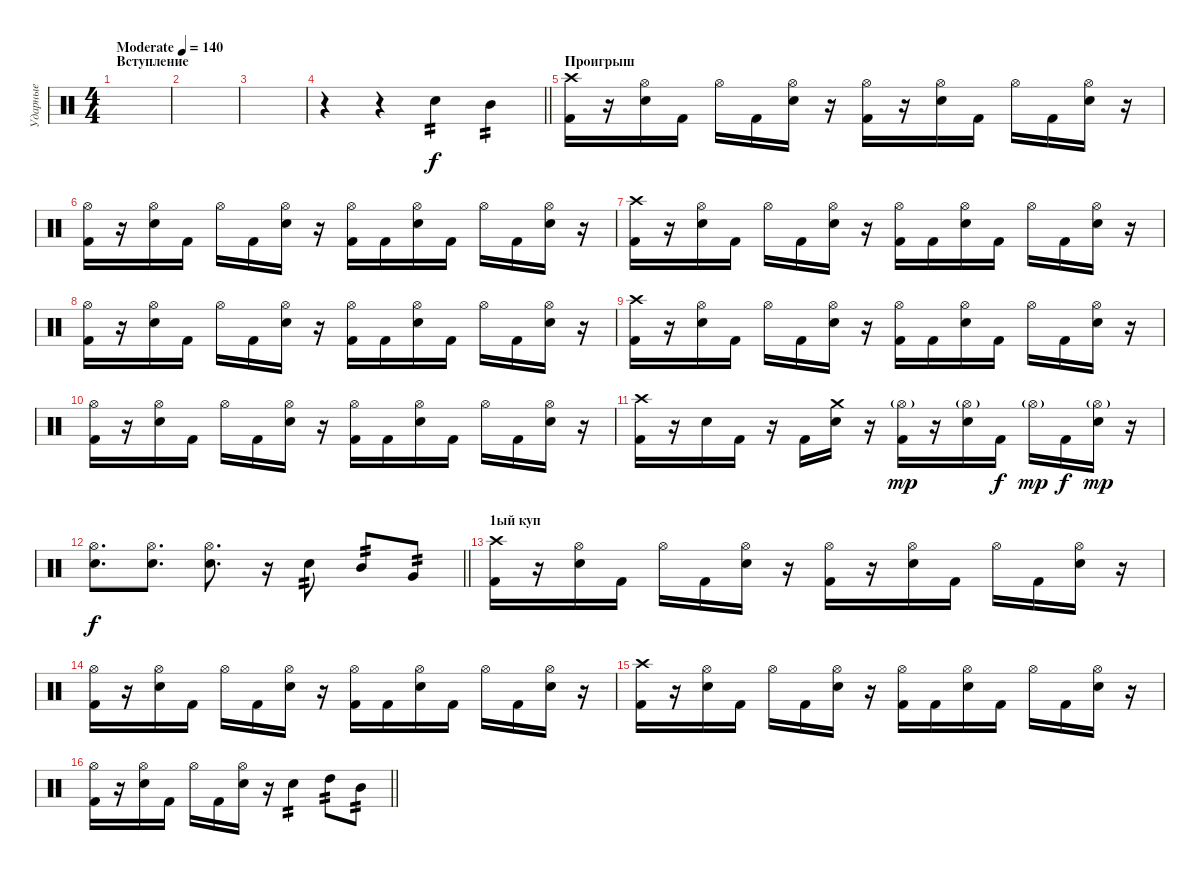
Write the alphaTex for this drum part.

\track ("Ударные" "Ударные") {instrument percussion}
\staff {score}
\articulation defaults
\ts (4 4)
\section ("" "Вступление")
\tempo (140 "Moderate")
\clef neutral
\ks c
|
|
|
\barLineRight lightlight
r.4 r.4 "Electric Snare (hit)".4{tp 2} "Mid Tom (hit)".4{tp 2} |
\section ("" "Проигрыш")
("Crash high (hit)" "Kick (hit) 2").16 r.16 ("Hi-Hat (open)" "Electric Snare (hit)").16 "Kick (hit) 2".16 "Hi-Hat (open)".16 "Kick (hit) 2".16 ("Hi-Hat (open)" "Electric Snare (hit)").16 r.16 ("Hi-Hat (open)" "Kick (hit) 2").16 r.16 ("Hi-Hat (open)" "Electric Snare (hit)").16 "Kick (hit) 2".16 "Hi-Hat (open)".16 "Kick (hit) 2".16 ("Hi-Hat (open)" "Electric Snare (hit)").16 r.16 |
("Hi-Hat (open)" "Kick (hit) 2").16 r.16 ("Hi-Hat (open)" "Electric Snare (hit)").16 "Kick (hit) 2".16 "Hi-Hat (open)".16 "Kick (hit) 2".16 ("Hi-Hat (open)" "Electric Snare (hit)").16 r.16 ("Hi-Hat (open)" "Kick (hit) 2").16 "Kick (hit) 2".16 ("Hi-Hat (open)" "Electric Snare (hit)").16 "Kick (hit) 2".16 "Hi-Hat (open)".16 "Kick (hit) 2".16 ("Hi-Hat (open)" "Electric Snare (hit)").16 r.16 |
("Crash high (hit)" "Kick (hit) 2").16 r.16 ("Hi-Hat (open)" "Electric Snare (hit)").16 "Kick (hit) 2".16 "Hi-Hat (open)".16 "Kick (hit) 2".16 ("Hi-Hat (open)" "Electric Snare (hit)").16 r.16 ("Hi-Hat (open)" "Kick (hit) 2").16 "Kick (hit) 2".16 ("Hi-Hat (open)" "Electric Snare (hit)").16 "Kick (hit) 2".16 "Hi-Hat (open)".16 "Kick (hit) 2".16 ("Hi-Hat (open)" "Electric Snare (hit)").16 r.16 |
("Hi-Hat (open)" "Kick (hit) 2").16 r.16 ("Hi-Hat (open)" "Electric Snare (hit)").16 "Kick (hit) 2".16 "Hi-Hat (open)".16 "Kick (hit) 2".16 ("Hi-Hat (open)" "Electric Snare (hit)").16 r.16 ("Hi-Hat (open)" "Kick (hit) 2").16 "Kick (hit) 2".16 ("Hi-Hat (open)" "Electric Snare (hit)").16 "Kick (hit) 2".16 "Hi-Hat (open)".16 "Kick (hit) 2".16 ("Hi-Hat (open)" "Electric Snare (hit)").16 r.16 |
("Crash high (hit)" "Kick (hit) 2").16 r.16 ("Hi-Hat (open)" "Electric Snare (hit)").16 "Kick (hit) 2".16 "Hi-Hat (open)".16 "Kick (hit) 2".16 ("Hi-Hat (open)" "Electric Snare (hit)").16 r.16 ("Hi-Hat (open)" "Kick (hit) 2").16 "Kick (hit) 2".16 ("Hi-Hat (open)" "Electric Snare (hit)").16 "Kick (hit) 2".16 "Hi-Hat (open)".16 "Kick (hit) 2".16 ("Hi-Hat (open)" "Electric Snare (hit)").16 r.16 |
("Hi-Hat (open)" "Kick (hit) 2").16 r.16 ("Hi-Hat (open)" "Electric Snare (hit)").16 "Kick (hit) 2".16 "Hi-Hat (open)".16 "Kick (hit) 2".16 ("Hi-Hat (open)" "Electric Snare (hit)").16 r.16 ("Hi-Hat (open)" "Kick (hit) 2").16 "Kick (hit) 2".16 ("Hi-Hat (open)" "Electric Snare (hit)").16 "Kick (hit) 2".16 "Hi-Hat (open)".16 "Kick (hit) 2".16 ("Hi-Hat (open)" "Electric Snare (hit)").16 r.16 |
("Crash high (hit)" "Kick (hit) 2").16 r.16 "Electric Snare (hit)".16 "Kick (hit) 2".16 r.16 "Kick (hit) 2".16 ("Crash medium (hit)" "Electric Snare (hit)").16 r.16 ("Hi-Hat (open)"{g} "Kick (hit) 2").16{dy mp} r.16 ("Hi-Hat (open)"{g} "Electric Snare (hit)").16 "Kick (hit) 2".16{dy f} "Hi-Hat (open)"{g}.16{dy mp} "Kick (hit) 2".16{dy f} ("Hi-Hat (open)"{g} "Electric Snare (hit)").16{dy mp} r.16 |
\barLineRight lightlight
("Hi-Hat (open)" "Electric Snare (hit)").8{d dy f} ("Hi-Hat (open)" "Electric Snare (hit)").8{d} ("Hi-Hat (open)" "Electric Snare (hit)").8{d} r.16 "Electric Snare (hit)".8{tp 2} "Mid Tom (hit)".8{tp 2} "Very Low Tom (hit)".8{tp 2} |
\section ("" "1ый куп")
("Crash high (hit)" "Kick (hit) 2").16 r.16 ("Hi-Hat (open)" "Electric Snare (hit)").16 "Kick (hit) 2".16 "Hi-Hat (open)".16 "Kick (hit) 2".16 ("Hi-Hat (open)" "Electric Snare (hit)").16 r.16 ("Hi-Hat (open)" "Kick (hit) 2").16 r.16 ("Hi-Hat (open)" "Electric Snare (hit)").16 "Kick (hit) 2".16 "Hi-Hat (open)".16 "Kick (hit) 2".16 ("Hi-Hat (open)" "Electric Snare (hit)").16 r.16 |
("Hi-Hat (open)" "Kick (hit) 2").16 r.16 ("Hi-Hat (open)" "Electric Snare (hit)").16 "Kick (hit) 2".16 "Hi-Hat (open)".16 "Kick (hit) 2".16 ("Hi-Hat (open)" "Electric Snare (hit)").16 r.16 ("Hi-Hat (open)" "Kick (hit) 2").16 "Kick (hit) 2".16 ("Hi-Hat (open)" "Electric Snare (hit)").16 "Kick (hit) 2".16 "Hi-Hat (open)".16 "Kick (hit) 2".16 ("Hi-Hat (open)" "Electric Snare (hit)").16 r.16 |
("Crash high (hit)" "Kick (hit) 2").16 r.16 ("Hi-Hat (open)" "Electric Snare (hit)").16 "Kick (hit) 2".16 "Hi-Hat (open)".16 "Kick (hit) 2".16 ("Hi-Hat (open)" "Electric Snare (hit)").16 r.16 ("Hi-Hat (open)" "Kick (hit) 2").16 "Kick (hit) 2".16 ("Hi-Hat (open)" "Electric Snare (hit)").16 "Kick (hit) 2".16 "Hi-Hat (open)".16 "Kick (hit) 2".16 ("Hi-Hat (open)" "Electric Snare (hit)").16 r.16 |
\barLineRight lightlight
("Hi-Hat (open)" "Kick (hit) 2").16 r.16 ("Hi-Hat (open)" "Electric Snare (hit)").16 "Kick (hit) 2".16 "Hi-Hat (open)".16 "Kick (hit) 2".16 ("Hi-Hat (open)" "Electric Snare (hit)").16 r.16 "Electric Snare (hit)".4{tp 2} "High Tom (hit)".8{tp 2} "Mid Tom (hit)".8{tp 2}
